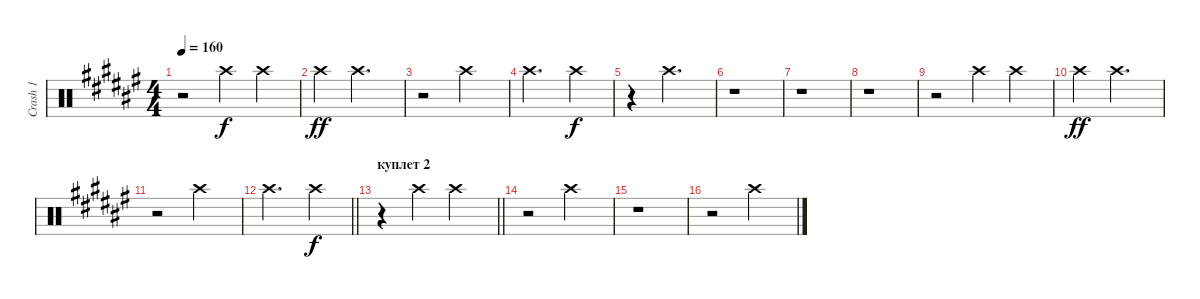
\track ("Crash 1" "Crash 1") {instrument percussion}
\staff {score}
\articulation defaults
\ts (4 4)
\tempo 160
\clef neutral
\ks d#minor
r.2{dy f} "Crash high (hit)".4 "Crash high (hit)".4 |
"Crash high (hit)".4{dy ff} "Crash high (hit)".2{d} |
r.2 "Crash high (hit)".2 |
"Crash high (hit)".2{d} "Crash high (hit)".4{dy f} |
r.4 "Crash high (hit)".2{d} |
r.1 |
r.1 |
r.1 |
r.2 "Crash high (hit)".4 "Crash high (hit)".4 |
"Crash high (hit)".4{dy ff} "Crash high (hit)".2{d} |
r.2 "Crash high (hit)".2 |
\barLineRight lightlight "Crash high (hit)".2{d} "Crash high (hit)".4{dy f}
|
\section ("" "куплет 2")
\barLineRight lightlight
r.4 "Crash high (hit)".4 "Crash high (hit)".2 |
r.2 "Crash high (hit)".2 |
r.1 |
r.2 "Crash high (hit)".2
